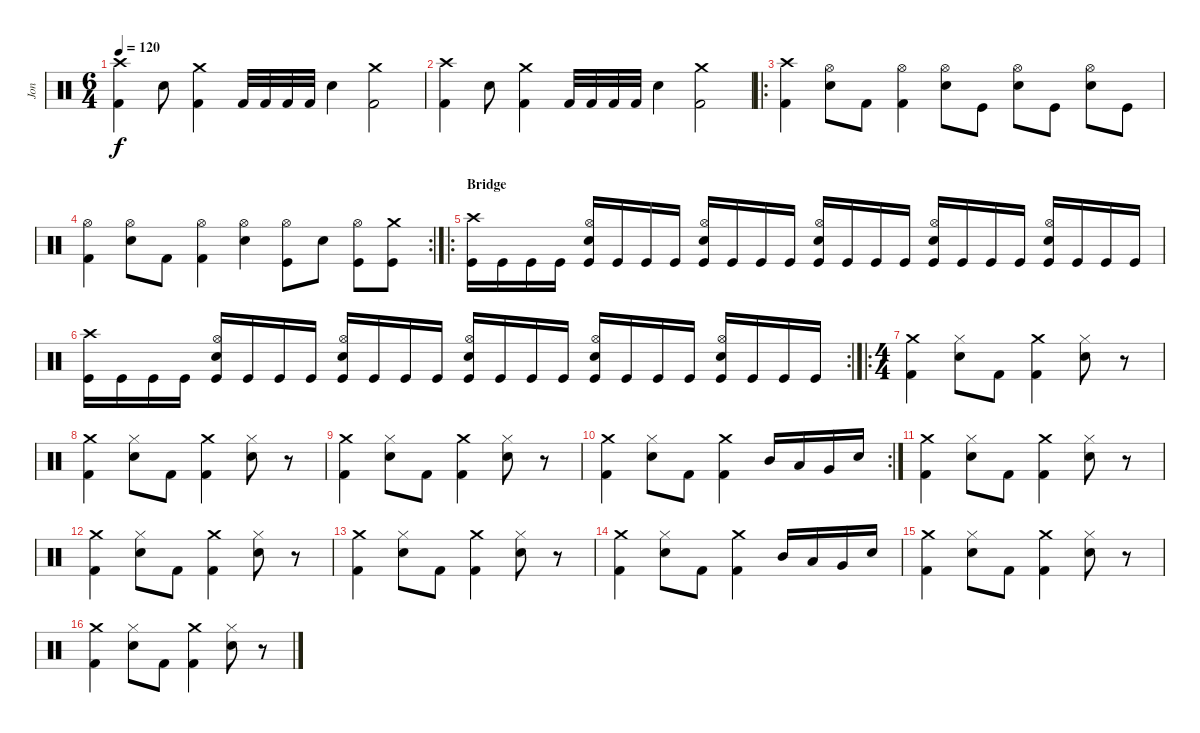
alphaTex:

\track ("Jon" "Jon") {instrument percussion}
\staff {score}
\articulation defaults
\ts (6 4)
\tempo 120
\clef neutral
\ks c
("Crash high (hit)" "Kick (hit) 2").4{dy f} "Snare (hit) 2".8 ("Crash medium (hit)" "Kick (hit) 2").4 "Kick (hit) 2".32 "Kick (hit) 2".32 "Kick (hit) 2".32 "Kick (hit) 2".32 "Snare (hit) 2".4 ("Crash medium (hit)" "Kick (hit) 2").2 |
("Crash high (hit)" "Kick (hit) 2").4 "Snare (hit) 2".8 ("Crash medium (hit)" "Kick (hit) 2").4 "Kick (hit) 2".32 "Kick (hit) 2".32 "Kick (hit) 2".32 "Kick (hit) 2".32 "Snare (hit) 2".4 ("Crash medium (hit)" "Kick (hit) 2").2 |
\ro
("Crash high (hit)" "Kick (hit) 2").4 ("Snare (hit) 2" "Hi-Hat (open)").8 "Kick (hit) 2".8 ("Hi-Hat (open)" "Kick (hit) 2").4 ("Snare (hit) 2" "Hi-Hat (open)").8 "Kick (hit)".8 ("Hi-Hat (open)" "Snare (hit) 2").8 "Kick (hit)".8 ("Hi-Hat (open)" "Snare (hit) 2").8 "Kick (hit)".8 |
\rc 2
("Hi-Hat (open)" "Kick (hit) 2").4 ("Snare (hit) 2" "Hi-Hat (open)").8 "Kick (hit) 2".8 ("Hi-Hat (open)" "Kick (hit) 2").4 ("Snare (hit) 2" "Hi-Hat (open)").4 ("Hi-Hat (open)" "Kick (hit)").8 "Snare (hit) 2".8 ("Hi-Hat (open)" "Kick (hit)").8 ("Crash medium (hit)" "Kick (hit)").8 |
\ro
\section ("" "Bridge")
("Crash high (hit)" "Kick (hit)").16 "Kick (hit)".16 "Kick (hit)".16 "Kick (hit)".16 ("Hi-Hat (open)" "Snare (hit) 2" "Kick (hit)").16 "Kick (hit)".16 "Kick (hit)".16 "Kick (hit)".16 ("Hi-Hat (open)" "Snare (hit) 2" "Kick (hit)").16 "Kick (hit)".16 "Kick (hit)".16 "Kick (hit)".16 ("Hi-Hat (open)" "Snare (hit) 2" "Kick (hit)").16 "Kick (hit)".16 "Kick (hit)".16 "Kick (hit)".16 ("Hi-Hat (open)" "Snare (hit) 2" "Kick (hit)").16 "Kick (hit)".16 "Kick (hit)".16 "Kick (hit)".16 ("Hi-Hat (open)" "Snare (hit) 2" "Kick (hit)").16 "Kick (hit)".16 "Kick (hit)".16 "Kick (hit)".16 |
\rc 2
("Crash high (hit)" "Kick (hit)").16 "Kick (hit)".16 "Kick (hit)".16 "Kick (hit)".16 ("Hi-Hat (open)" "Snare (hit) 2" "Kick (hit)").16 "Kick (hit)".16 "Kick (hit)".16 "Kick (hit)".16 ("Hi-Hat (open)" "Snare (hit) 2" "Kick (hit)").16 "Kick (hit)".16 "Kick (hit)".16 "Kick (hit)".16 ("Hi-Hat (open)" "Snare (hit) 2" "Kick (hit)").16 "Kick (hit)".16 "Kick (hit)".16 "Kick (hit)".16 ("Hi-Hat (open)" "Snare (hit) 2" "Kick (hit)").16 "Kick (hit)".16 "Kick (hit)".16 "Kick (hit)".16 ("Hi-Hat (open)" "Snare (hit) 2" "Kick (hit)").16 "Kick (hit)".16 "Kick (hit)".16 "Kick (hit)".16 |
\ro
\ts (4 4)
("Crash medium (hit)" "Kick (hit) 2").4 ("Snare (hit) 2" "Hi-Hat (closed)").8 "Kick (hit) 2".8 ("Crash medium (hit)" "Kick (hit) 2").4 ("Snare (hit) 2" "Hi-Hat (closed)").8 r.8 |
("Crash medium (hit)" "Kick (hit) 2").4 ("Snare (hit) 2" "Hi-Hat (closed)").8 "Kick (hit) 2".8 ("Crash medium (hit)" "Kick (hit) 2").4 ("Snare (hit) 2" "Hi-Hat (closed)").8 r.8 |
("Crash medium (hit)" "Kick (hit) 2").4 ("Snare (hit) 2" "Hi-Hat (closed)").8 "Kick (hit) 2".8 ("Crash medium (hit)" "Kick (hit) 2").4 ("Snare (hit) 2" "Hi-Hat (closed)").8 r.8 |
\rc 2
("Crash medium (hit)" "Kick (hit) 2").4 ("Snare (hit) 2" "Hi-Hat (closed)").8 "Kick (hit) 2".8 ("Crash medium (hit)" "Kick (hit) 2").4 "Mid Tom (hit)".16 "Low Tom (hit)".16 "Very Low Tom (hit)".16 "Snare (hit) 2".16 |
("Crash medium (hit)" "Kick (hit) 2").4 ("Snare (hit) 2" "Hi-Hat (closed)").8 "Kick (hit) 2".8 ("Crash medium (hit)" "Kick (hit) 2").4 ("Snare (hit) 2" "Hi-Hat (closed)").8 r.8 |
("Crash medium (hit)" "Kick (hit) 2").4 ("Snare (hit) 2" "Hi-Hat (closed)").8 "Kick (hit) 2".8 ("Crash medium (hit)" "Kick (hit) 2").4 ("Snare (hit) 2" "Hi-Hat (closed)").8 r.8 |
("Crash medium (hit)" "Kick (hit) 2").4 ("Snare (hit) 2" "Hi-Hat (closed)").8 "Kick (hit) 2".8 ("Crash medium (hit)" "Kick (hit) 2").4 ("Snare (hit) 2" "Hi-Hat (closed)").8 r.8 |
("Crash medium (hit)" "Kick (hit) 2").4 ("Snare (hit) 2" "Hi-Hat (closed)").8 "Kick (hit) 2".8 ("Crash medium (hit)" "Kick (hit) 2").4 "Mid Tom (hit)".16 "Low Tom (hit)".16 "Very Low Tom (hit)".16 "Snare (hit) 2".16 |
("Crash medium (hit)" "Kick (hit) 2").4 ("Snare (hit) 2" "Hi-Hat (closed)").8 "Kick (hit) 2".8 ("Crash medium (hit)" "Kick (hit) 2").4 ("Snare (hit) 2" "Hi-Hat (closed)").8 r.8 |
("Crash medium (hit)" "Kick (hit) 2").4 ("Snare (hit) 2" "Hi-Hat (closed)").8 "Kick (hit) 2".8 ("Crash medium (hit)" "Kick (hit) 2").4 ("Snare (hit) 2" "Hi-Hat (closed)").8 r.8
